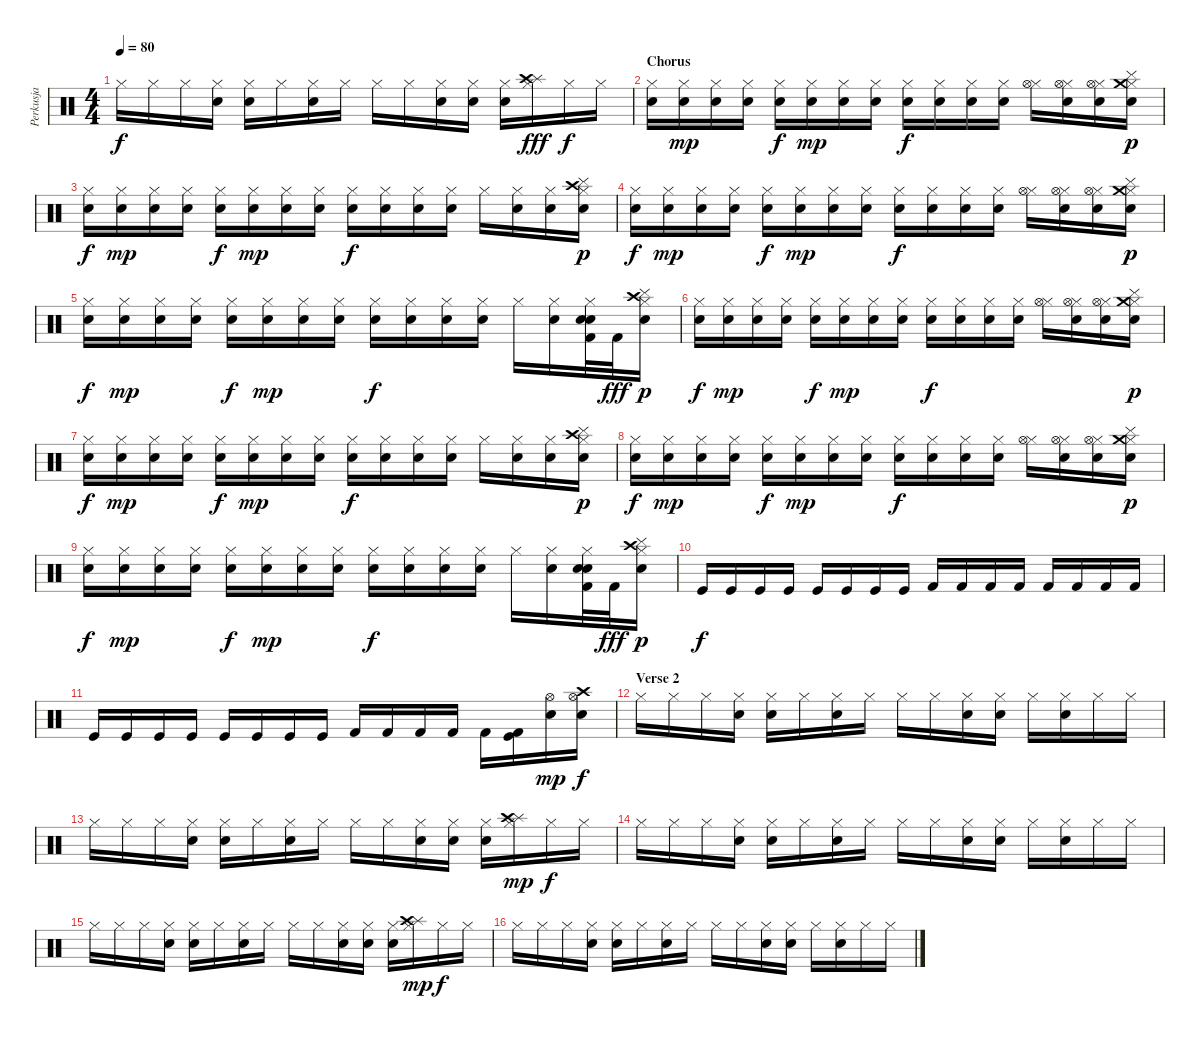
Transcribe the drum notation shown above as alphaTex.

\track ("Perkusja" "Perkusja") {instrument percussion}
\staff {score}
\articulation defaults
\ts (4 4)
\tempo 80
\clef neutral
\ks c "Hi-Hat (closed)".16{dy f} "Hi-Hat (closed)".16 "Hi-Hat (closed)".16
("Hi-Hat (closed)" "Electric Snare (hit)").16 ("Hi-Hat (closed)" "Snare (hit) 2").16 "Hi-Hat (closed)".16 ("Hi-Hat (closed)" "Electric Snare (hit)").16 "Hi-Hat (closed)".16 "Hi-Hat (closed)".16 "Hi-Hat (closed)".16 ("Hi-Hat (closed)" "Electric Snare (hit)").16 ("Hi-Hat (closed)" "Snare (hit) 2").16 ("Hi-Hat (closed)" "Electric Snare (hit)").16 ("Hi-Hat (closed)" "Splash (hit)" "Crash high (hit)").16{dy fff} "Hi-Hat (closed)".16{dy f} "Hi-Hat (closed)".16 |
\section ("" "Chorus")
("Hi-Hat (closed)" "Snare (hit) 2").16 ("Hi-Hat (closed)" "Electric Snare (hit)").16{dy mp} ("Hi-Hat (closed)" "Electric Snare (hit)").16 ("Hi-Hat (closed)" "Electric Snare (hit)").16 ("Hi-Hat (closed)" "Snare (hit) 2").16{dy f} ("Hi-Hat (closed)" "Electric Snare (hit)").16{dy mp} ("Hi-Hat (closed)" "Electric Snare (hit)").16 ("Hi-Hat (closed)" "Electric Snare (hit)").16 ("Hi-Hat (closed)" "Snare (hit) 2").16{dy f} ("Hi-Hat (closed)" "Electric Snare (hit)").16 ("Hi-Hat (closed)" "Electric Snare (hit)").16 ("Hi-Hat (closed)" "Snare (hit) 2").16 ("Hi-Hat (closed)" "Hi-Hat (open)").16 ("Hi-Hat (closed)" "Snare (hit) 2" "Hi-Hat (open)").16 ("Hi-Hat (closed)" "Snare (hit) 2" "Hi-Hat (open)").16 ("Hi-Hat (closed)" "Snare (hit) 2" "Cymbal (hit)" "Crash medium (hit)").16{dy p} |
("Hi-Hat (closed)" "Snare (hit) 2").16{dy f} ("Hi-Hat (closed)" "Electric Snare (hit)").16{dy mp} ("Hi-Hat (closed)" "Electric Snare (hit)").16 ("Hi-Hat (closed)" "Electric Snare (hit)").16 ("Hi-Hat (closed)" "Snare (hit) 2").16{dy f} ("Hi-Hat (closed)" "Electric Snare (hit)").16{dy mp} ("Hi-Hat (closed)" "Electric Snare (hit)").16 ("Hi-Hat (closed)" "Electric Snare (hit)").16 ("Hi-Hat (closed)" "Snare (hit) 2").16{dy f} ("Hi-Hat (closed)" "Electric Snare (hit)").16 ("Hi-Hat (closed)" "Electric Snare (hit)").16 ("Hi-Hat (closed)" "Snare (hit) 2").16 "Hi-Hat (closed)".16 ("Hi-Hat (closed)" "Snare (hit) 2").16 ("Hi-Hat (closed)" "Snare (hit) 2").16 ("Hi-Hat (closed)" "Snare (hit) 2" "Cymbal (hit)" "Crash high (hit)").16{dy p} |
("Hi-Hat (closed)" "Snare (hit) 2").16{dy f} ("Hi-Hat (closed)" "Electric Snare (hit)").16{dy mp} ("Hi-Hat (closed)" "Electric Snare (hit)").16 ("Hi-Hat (closed)" "Electric Snare (hit)").16 ("Hi-Hat (closed)" "Snare (hit) 2").16{dy f} ("Hi-Hat (closed)" "Electric Snare (hit)").16{dy mp} ("Hi-Hat (closed)" "Electric Snare (hit)").16 ("Hi-Hat (closed)" "Electric Snare (hit)").16 ("Hi-Hat (closed)" "Snare (hit) 2").16{dy f} ("Hi-Hat (closed)" "Electric Snare (hit)").16 ("Hi-Hat (closed)" "Electric Snare (hit)").16 ("Hi-Hat (closed)" "Snare (hit) 2").16 ("Hi-Hat (closed)" "Hi-Hat (open)").16 ("Hi-Hat (closed)" "Snare (hit) 2" "Hi-Hat (open)").16 ("Hi-Hat (closed)" "Snare (hit) 2" "Hi-Hat (open)").16 ("Hi-Hat (closed)" "Snare (hit) 2" "Cymbal (hit)" "Crash medium (hit)").16{dy p} |
("Hi-Hat (closed)" "Snare (hit) 2").16{dy f} ("Hi-Hat (closed)" "Electric Snare (hit)").16{dy mp} ("Hi-Hat (closed)" "Electric Snare (hit)").16 ("Hi-Hat (closed)" "Electric Snare (hit)").16 ("Hi-Hat (closed)" "Snare (hit) 2").16{dy f} ("Hi-Hat (closed)" "Electric Snare (hit)").16{dy mp} ("Hi-Hat (closed)" "Electric Snare (hit)").16 ("Hi-Hat (closed)" "Electric Snare (hit)").16 ("Hi-Hat (closed)" "Snare (hit) 2").16{dy f} ("Hi-Hat (closed)" "Electric Snare (hit)").16 ("Hi-Hat (closed)" "Electric Snare (hit)").16 ("Hi-Hat (closed)" "Snare (hit) 2").16 "Hi-Hat (closed)".16 ("Hi-Hat (closed)" "Snare (hit) 2").16 ("Hi-Hat (closed)" "Snare (hit) 2" "Electric Snare (hit)" "Kick (hit) 2").32 "Kick (hit) 2".32{dy fff} ("Hi-Hat (closed)" "Snare (hit) 2" "Cymbal (hit)" "Crash high (hit)").16{dy p} |
("Hi-Hat (closed)" "Snare (hit) 2").16{dy f} ("Hi-Hat (closed)" "Electric Snare (hit)").16{dy mp} ("Hi-Hat (closed)" "Electric Snare (hit)").16 ("Hi-Hat (closed)" "Electric Snare (hit)").16 ("Hi-Hat (closed)" "Snare (hit) 2").16{dy f} ("Hi-Hat (closed)" "Electric Snare (hit)").16{dy mp} ("Hi-Hat (closed)" "Electric Snare (hit)").16 ("Hi-Hat (closed)" "Electric Snare (hit)").16 ("Hi-Hat (closed)" "Snare (hit) 2").16{dy f} ("Hi-Hat (closed)" "Electric Snare (hit)").16 ("Hi-Hat (closed)" "Electric Snare (hit)").16 ("Hi-Hat (closed)" "Snare (hit) 2").16 ("Hi-Hat (closed)" "Hi-Hat (open)").16 ("Hi-Hat (closed)" "Snare (hit) 2" "Hi-Hat (open)").16 ("Hi-Hat (closed)" "Snare (hit) 2" "Hi-Hat (open)").16 ("Hi-Hat (closed)" "Snare (hit) 2" "Cymbal (hit)" "Crash medium (hit)").16{dy p} |
("Hi-Hat (closed)" "Snare (hit) 2").16{dy f} ("Hi-Hat (closed)" "Electric Snare (hit)").16{dy mp} ("Hi-Hat (closed)" "Electric Snare (hit)").16 ("Hi-Hat (closed)" "Electric Snare (hit)").16 ("Hi-Hat (closed)" "Snare (hit) 2").16{dy f} ("Hi-Hat (closed)" "Electric Snare (hit)").16{dy mp} ("Hi-Hat (closed)" "Electric Snare (hit)").16 ("Hi-Hat (closed)" "Electric Snare (hit)").16 ("Hi-Hat (closed)" "Snare (hit) 2").16{dy f} ("Hi-Hat (closed)" "Electric Snare (hit)").16 ("Hi-Hat (closed)" "Electric Snare (hit)").16 ("Hi-Hat (closed)" "Snare (hit) 2").16 "Hi-Hat (closed)".16 ("Hi-Hat (closed)" "Snare (hit) 2").16 ("Hi-Hat (closed)" "Snare (hit) 2").16 ("Hi-Hat (closed)" "Snare (hit) 2" "Cymbal (hit)" "Crash high (hit)").16{dy p} |
("Hi-Hat (closed)" "Snare (hit) 2").16{dy f} ("Hi-Hat (closed)" "Electric Snare (hit)").16{dy mp} ("Hi-Hat (closed)" "Electric Snare (hit)").16 ("Hi-Hat (closed)" "Electric Snare (hit)").16 ("Hi-Hat (closed)" "Snare (hit) 2").16{dy f} ("Hi-Hat (closed)" "Electric Snare (hit)").16{dy mp} ("Hi-Hat (closed)" "Electric Snare (hit)").16 ("Hi-Hat (closed)" "Electric Snare (hit)").16 ("Hi-Hat (closed)" "Snare (hit) 2").16{dy f} ("Hi-Hat (closed)" "Electric Snare (hit)").16 ("Hi-Hat (closed)" "Electric Snare (hit)").16 ("Hi-Hat (closed)" "Snare (hit) 2").16 ("Hi-Hat (closed)" "Hi-Hat (open)").16 ("Hi-Hat (closed)" "Snare (hit) 2" "Hi-Hat (open)").16 ("Hi-Hat (closed)" "Snare (hit) 2" "Hi-Hat (open)").16 ("Hi-Hat (closed)" "Snare (hit) 2" "Cymbal (hit)" "Crash medium (hit)").16{dy p} |
("Hi-Hat (closed)" "Snare (hit) 2").16{dy f} ("Hi-Hat (closed)" "Electric Snare (hit)").16{dy mp} ("Hi-Hat (closed)" "Electric Snare (hit)").16 ("Hi-Hat (closed)" "Electric Snare (hit)").16 ("Hi-Hat (closed)" "Snare (hit) 2").16{dy f} ("Hi-Hat (closed)" "Electric Snare (hit)").16{dy mp} ("Hi-Hat (closed)" "Electric Snare (hit)").16 ("Hi-Hat (closed)" "Electric Snare (hit)").16 ("Hi-Hat (closed)" "Snare (hit) 2").16{dy f} ("Hi-Hat (closed)" "Electric Snare (hit)").16 ("Hi-Hat (closed)" "Electric Snare (hit)").16 ("Hi-Hat (closed)" "Snare (hit) 2").16 "Hi-Hat (closed)".16 ("Hi-Hat (closed)" "Snare (hit) 2").16 ("Hi-Hat (closed)" "Snare (hit) 2" "Electric Snare (hit)" "Kick (hit) 2").32 "Kick (hit) 2".32{dy fff} ("Hi-Hat (closed)" "Snare (hit) 2" "Cymbal (hit)" "Crash high (hit)").16{dy p} |
"Kick (hit)".16{dy f} "Kick (hit)".16 "Kick (hit)".16 "Kick (hit)".16 "Kick (hit)".16 "Kick (hit)".16 "Kick (hit)".16 "Kick (hit)".16 "Kick (hit) 2".16 "Kick (hit) 2".16 "Kick (hit) 2".16 "Kick (hit) 2".16 "Kick (hit) 2".16 "Kick (hit) 2".16 "Kick (hit) 2".16 "Kick (hit) 2".16 |
"Kick (hit)".16 "Kick (hit)".16 "Kick (hit)".16 "Kick (hit)".16 "Kick (hit)".16 "Kick (hit)".16 "Kick (hit)".16 "Kick (hit)".16 "Kick (hit) 2".16 "Kick (hit) 2".16 "Kick (hit) 2".16 "Kick (hit) 2".16 "Kick (hit) 2".16 ("Kick (hit) 2" "Kick (hit)").16 ("Electric Snare (hit)" "Hi-Hat (open)").16{dy mp} ("Snare (hit) 2" "Crash high (hit)" "Hi-Hat (open)").16{dy f} |
\section ("" "Verse 2")
"Hi-Hat (closed)".16 "Hi-Hat (closed)".16 "Hi-Hat (closed)".16 ("Hi-Hat (closed)" "Electric Snare (hit)").16 ("Hi-Hat (closed)" "Snare (hit) 2").16 "Hi-Hat (closed)".16 ("Hi-Hat (closed)" "Electric Snare (hit)").16 "Hi-Hat (closed)".16 "Hi-Hat (closed)".16 "Hi-Hat (closed)".16 ("Hi-Hat (closed)" "Electric Snare (hit)").16 ("Hi-Hat (closed)" "Snare (hit) 2").16 "Hi-Hat (closed)".16 ("Hi-Hat (closed)" "Electric Snare (hit)").16 "Hi-Hat (closed)".16 "Hi-Hat (closed)".16 |
"Hi-Hat (closed)".16 "Hi-Hat (closed)".16 "Hi-Hat (closed)".16 ("Hi-Hat (closed)" "Electric Snare (hit)").16 ("Hi-Hat (closed)" "Snare (hit) 2").16 "Hi-Hat (closed)".16 ("Hi-Hat (closed)" "Electric Snare (hit)").16 "Hi-Hat (closed)".16 "Hi-Hat (closed)".16 "Hi-Hat (closed)".16 ("Hi-Hat (closed)" "Electric Snare (hit)").16 ("Hi-Hat (closed)" "Snare (hit) 2").16 ("Hi-Hat (closed)" "Electric Snare (hit)").16 ("Hi-Hat (closed)" "Splash (hit)" "Crash high (hit)").16{dy mp} "Hi-Hat (closed)".16{dy f} "Hi-Hat (closed)".16 |
"Hi-Hat (closed)".16 "Hi-Hat (closed)".16 "Hi-Hat (closed)".16 ("Hi-Hat (closed)" "Electric Snare (hit)").16 ("Hi-Hat (closed)" "Snare (hit) 2").16 "Hi-Hat (closed)".16 ("Hi-Hat (closed)" "Electric Snare (hit)").16 "Hi-Hat (closed)".16 "Hi-Hat (closed)".16 "Hi-Hat (closed)".16 ("Hi-Hat (closed)" "Electric Snare (hit)").16 ("Hi-Hat (closed)" "Snare (hit) 2").16 "Hi-Hat (closed)".16 ("Hi-Hat (closed)" "Electric Snare (hit)").16 "Hi-Hat (closed)".16 "Hi-Hat (closed)".16 |
"Hi-Hat (closed)".16 "Hi-Hat (closed)".16 "Hi-Hat (closed)".16 ("Hi-Hat (closed)" "Electric Snare (hit)").16 ("Hi-Hat (closed)" "Snare (hit) 2").16 "Hi-Hat (closed)".16 ("Hi-Hat (closed)" "Electric Snare (hit)").16 "Hi-Hat (closed)".16 "Hi-Hat (closed)".16 "Hi-Hat (closed)".16 ("Hi-Hat (closed)" "Electric Snare (hit)").16 ("Hi-Hat (closed)" "Snare (hit) 2").16 ("Hi-Hat (closed)" "Electric Snare (hit)").16 ("Hi-Hat (closed)" "Splash (hit)" "Crash high (hit)").16{dy mp} "Hi-Hat (closed)".16{dy f} "Hi-Hat (closed)".16 |
"Hi-Hat (closed)".16 "Hi-Hat (closed)".16 "Hi-Hat (closed)".16 ("Hi-Hat (closed)" "Electric Snare (hit)").16 ("Hi-Hat (closed)" "Snare (hit) 2").16 "Hi-Hat (closed)".16 ("Hi-Hat (closed)" "Electric Snare (hit)").16 "Hi-Hat (closed)".16 "Hi-Hat (closed)".16 "Hi-Hat (closed)".16 ("Hi-Hat (closed)" "Electric Snare (hit)").16 ("Hi-Hat (closed)" "Snare (hit) 2").16 "Hi-Hat (closed)".16 ("Hi-Hat (closed)" "Electric Snare (hit)").16 "Hi-Hat (closed)".16 "Hi-Hat (closed)".16
